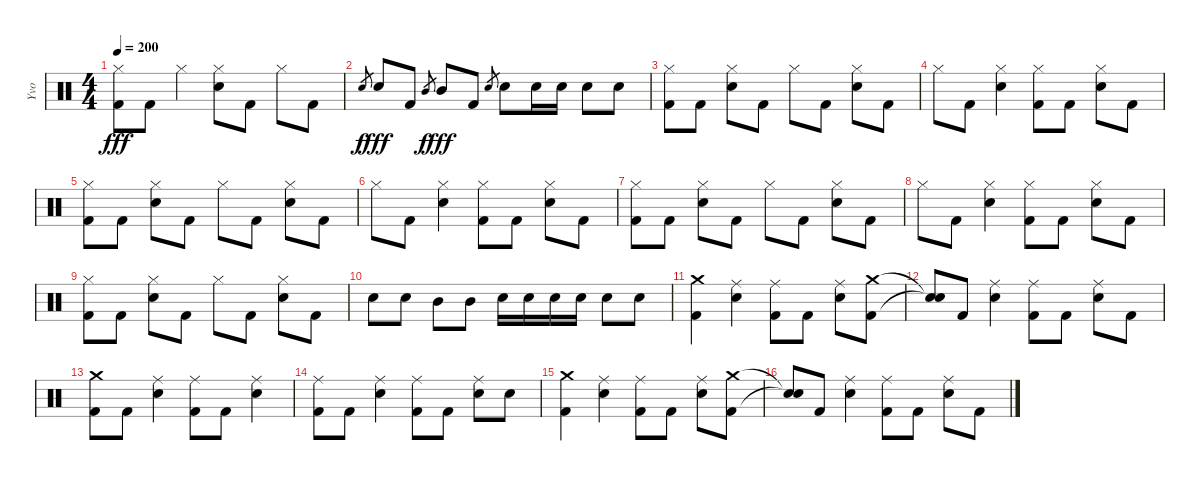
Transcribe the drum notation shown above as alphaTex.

\track ("Yvo" "Yvo") {instrument percussion}
\staff {score}
\articulation defaults
\ts (4 4)
\tempo 200
\clef neutral
\ks c
("Hi-Hat (closed)" "Kick (hit) 2").8{dy fff} "Kick (hit) 2".8 "Hi-Hat (closed)".4 ("Hi-Hat (closed)" "Electric Snare (hit)").8 "Kick (hit) 2".8 "Hi-Hat (closed)".8 "Kick (hit) 2".8 |
"Electric Snare (hit)".8{gr dy f} "Electric Snare (hit)".8{dy fff} "Kick (hit) 2".8 "Mid Tom (hit)".8{gr dy f} "Mid Tom (hit)".8{dy fff} "Kick (hit) 2".8 "Electric Snare (hit)".8{gr} "Electric Snare (hit)".8 "Electric Snare (hit)".16 "Electric Snare (hit)".16 "Electric Snare (hit)".8 "Electric Snare (hit)".8 |
("Hi-Hat (closed)" "Kick (hit) 2").8 "Kick (hit) 2".8 ("Hi-Hat (closed)" "Electric Snare (hit)").8 "Kick (hit) 2".8 "Hi-Hat (closed)".8 "Kick (hit) 2".8 ("Hi-Hat (closed)" "Electric Snare (hit)").8 "Kick (hit) 2".8 |
"Hi-Hat (closed)".8 "Kick (hit) 2".8 ("Hi-Hat (closed)" "Electric Snare (hit)").4 ("Hi-Hat (closed)" "Kick (hit) 2").8 "Kick (hit) 2".8 ("Hi-Hat (closed)" "Electric Snare (hit)").8 "Kick (hit) 2".8 |
("Hi-Hat (closed)" "Kick (hit) 2").8 "Kick (hit) 2".8 ("Hi-Hat (closed)" "Electric Snare (hit)").8 "Kick (hit) 2".8 "Hi-Hat (closed)".8 "Kick (hit) 2".8 ("Hi-Hat (closed)" "Electric Snare (hit)").8 "Kick (hit) 2".8 |
"Hi-Hat (closed)".8 "Kick (hit) 2".8 ("Hi-Hat (closed)" "Electric Snare (hit)").4 ("Hi-Hat (closed)" "Kick (hit) 2").8 "Kick (hit) 2".8 ("Hi-Hat (closed)" "Electric Snare (hit)").8 "Kick (hit) 2".8 |
("Hi-Hat (closed)" "Kick (hit) 2").8 "Kick (hit) 2".8 ("Hi-Hat (closed)" "Electric Snare (hit)").8 "Kick (hit) 2".8 "Hi-Hat (closed)".8 "Kick (hit) 2".8 ("Hi-Hat (closed)" "Electric Snare (hit)").8 "Kick (hit) 2".8 |
"Hi-Hat (closed)".8 "Kick (hit) 2".8 ("Hi-Hat (closed)" "Electric Snare (hit)").4 ("Hi-Hat (closed)" "Kick (hit) 2").8 "Kick (hit) 2".8 ("Hi-Hat (closed)" "Electric Snare (hit)").8 "Kick (hit) 2".8 |
("Hi-Hat (closed)" "Kick (hit) 2").8 "Kick (hit) 2".8 ("Hi-Hat (closed)" "Electric Snare (hit)").8 "Kick (hit) 2".8 "Hi-Hat (closed)".8 "Kick (hit) 2".8 ("Hi-Hat (closed)" "Electric Snare (hit)").8 "Kick (hit) 2".8 |
"Electric Snare (hit)".8 "Electric Snare (hit)".8 "Mid Tom (hit)".8 "Mid Tom (hit)".8 "Electric Snare (hit)".16 "Electric Snare (hit)".16 "Electric Snare (hit)".16 "Electric Snare (hit)".16 "Electric Snare (hit)".8 "Electric Snare (hit)".8 |
("Crash medium (hit)" "Kick (hit) 2").4 ("Ride (middle)" "Electric Snare (hit)").4 ("Ride (middle)" "Kick (hit) 2").8 "Kick (hit) 2".8 ("Ride (middle)" "Electric Snare (hit)").8 ("Crash medium (hit)" "Kick (hit) 2").8 |
("Snare (hit)"{t} "Snare (hit)"{t}).8 "Kick (hit) 2".8 ("Ride (middle)" "Electric Snare (hit)").4 ("Ride (middle)" "Kick (hit) 2").8 "Kick (hit) 2".8 ("Ride (middle)" "Electric Snare (hit)").8 "Kick (hit) 2".8 |
("Crash medium (hit)" "Kick (hit) 2").8 "Kick (hit) 2".8 ("Ride (middle)" "Electric Snare (hit)").4 ("Ride (middle)" "Kick (hit) 2").8 "Kick (hit) 2".8 ("Ride (middle)" "Electric Snare (hit)").4 |
("Ride (middle)" "Kick (hit) 2").8 "Kick (hit) 2".8 ("Ride (middle)" "Electric Snare (hit)").4 ("Ride (middle)" "Kick (hit) 2").8 "Kick (hit) 2".8 ("Ride (middle)" "Electric Snare (hit)").8 "Electric Snare (hit)".8 |
("Crash medium (hit)" "Kick (hit) 2").4 ("Ride (middle)" "Electric Snare (hit)").4 ("Ride (middle)" "Kick (hit) 2").8 "Kick (hit) 2".8 ("Ride (middle)" "Electric Snare (hit)").8 ("Crash medium (hit)" "Kick (hit) 2").8 |
("Snare (hit)"{t} "Snare (hit)"{t}).8 "Kick (hit) 2".8 ("Ride (middle)" "Electric Snare (hit)").4 ("Ride (middle)" "Kick (hit) 2").8 "Kick (hit) 2".8 ("Ride (middle)" "Electric Snare (hit)").8 "Kick (hit) 2".8
